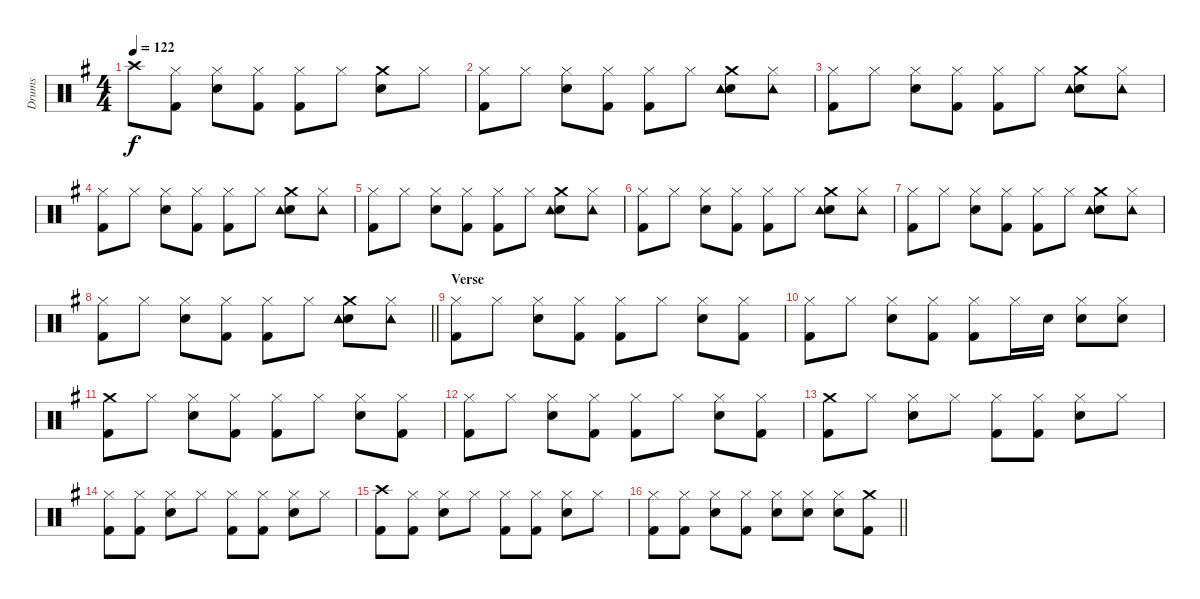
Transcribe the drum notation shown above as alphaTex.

\track ("Drums" "Drums") {instrument percussion}
\staff {score}
\articulation defaults
\ts (4 4)
\tempo 122
\clef neutral
\ks g "Crash high (hit)"{t}.8{dy f}
("Hi-Hat (closed)" "Kick (hit) 2").8 ("Hi-Hat (closed)" "Electric Snare (hit)").8 ("Hi-Hat (closed)" "Kick (hit) 2").8 ("Hi-Hat (closed)" "Kick (hit) 2").8 "Hi-Hat (closed)".8 ("Crash medium (hit)" "Electric Snare (hit)").8 "Hi-Hat (closed)".8 |
("Hi-Hat (closed)" "Kick (hit) 2").8 "Hi-Hat (closed)".8 ("Hi-Hat (closed)" "Electric Snare (hit)").8 ("Hi-Hat (closed)" "Kick (hit) 2").8 ("Hi-Hat (closed)" "Kick (hit) 2").8 "Hi-Hat (closed)".8 ("Crash medium (hit)" "Electric Snare (hit)" "Tambourine (hit)").8 ("Hi-Hat (closed)" "Tambourine (hit)").8 |
("Hi-Hat (closed)" "Kick (hit) 2").8 "Hi-Hat (closed)".8 ("Hi-Hat (closed)" "Electric Snare (hit)").8 ("Hi-Hat (closed)" "Kick (hit) 2").8 ("Hi-Hat (closed)" "Kick (hit) 2").8 "Hi-Hat (closed)".8 ("Crash medium (hit)" "Electric Snare (hit)" "Tambourine (hit)").8 ("Hi-Hat (closed)" "Tambourine (hit)").8 |
("Hi-Hat (closed)" "Kick (hit) 2").8 "Hi-Hat (closed)".8 ("Hi-Hat (closed)" "Electric Snare (hit)").8 ("Hi-Hat (closed)" "Kick (hit) 2").8 ("Hi-Hat (closed)" "Kick (hit) 2").8 "Hi-Hat (closed)".8 ("Crash medium (hit)" "Electric Snare (hit)" "Tambourine (hit)").8 ("Hi-Hat (closed)" "Tambourine (hit)").8 |
("Hi-Hat (closed)" "Kick (hit) 2").8 "Hi-Hat (closed)".8 ("Hi-Hat (closed)" "Electric Snare (hit)").8 ("Hi-Hat (closed)" "Kick (hit) 2").8 ("Hi-Hat (closed)" "Kick (hit) 2").8 "Hi-Hat (closed)".8 ("Crash medium (hit)" "Electric Snare (hit)" "Tambourine (hit)").8 ("Hi-Hat (closed)" "Tambourine (hit)").8 |
("Hi-Hat (closed)" "Kick (hit) 2").8 "Hi-Hat (closed)".8 ("Hi-Hat (closed)" "Electric Snare (hit)").8 ("Hi-Hat (closed)" "Kick (hit) 2").8 ("Hi-Hat (closed)" "Kick (hit) 2").8 "Hi-Hat (closed)".8 ("Crash medium (hit)" "Electric Snare (hit)" "Tambourine (hit)").8 ("Hi-Hat (closed)" "Tambourine (hit)").8 |
("Hi-Hat (closed)" "Kick (hit) 2").8 "Hi-Hat (closed)".8 ("Hi-Hat (closed)" "Electric Snare (hit)").8 ("Hi-Hat (closed)" "Kick (hit) 2").8 ("Hi-Hat (closed)" "Kick (hit) 2").8 "Hi-Hat (closed)".8 ("Crash medium (hit)" "Electric Snare (hit)" "Tambourine (hit)").8 ("Hi-Hat (closed)" "Tambourine (hit)").8 |
\barLineRight lightlight
("Hi-Hat (closed)" "Kick (hit) 2").8 "Hi-Hat (closed)".8 ("Hi-Hat (closed)" "Electric Snare (hit)").8 ("Hi-Hat (closed)" "Kick (hit) 2").8 ("Hi-Hat (closed)" "Kick (hit) 2").8 "Hi-Hat (closed)".8 ("Crash medium (hit)" "Electric Snare (hit)" "Tambourine (hit)").8 ("Hi-Hat (closed)" "Tambourine (hit)").8 |
\section ("" "Verse")
("Hi-Hat (closed)" "Kick (hit) 2").8 "Hi-Hat (closed)".8 ("Hi-Hat (closed)" "Electric Snare (hit)").8 ("Hi-Hat (closed)" "Kick (hit) 2").8 ("Hi-Hat (closed)" "Kick (hit) 2").8 "Hi-Hat (closed)".8 ("Hi-Hat (closed)" "Electric Snare (hit)").8 ("Hi-Hat (closed)" "Kick (hit) 2").8 |
("Hi-Hat (closed)" "Kick (hit) 2").8 "Hi-Hat (closed)".8 ("Hi-Hat (closed)" "Electric Snare (hit)").8 ("Hi-Hat (closed)" "Kick (hit) 2").8 ("Hi-Hat (closed)" "Kick (hit) 2").8 "Hi-Hat (closed)".16 "Electric Snare (hit)".16 ("Hi-Hat (closed)" "Electric Snare (hit)").8 ("Hi-Hat (closed)" "Electric Snare (hit)").8 |
("Crash medium (hit)" "Kick (hit) 2").8 "Hi-Hat (closed)".8 ("Hi-Hat (closed)" "Electric Snare (hit)").8 ("Hi-Hat (closed)" "Kick (hit) 2").8 ("Hi-Hat (closed)" "Kick (hit) 2").8 "Hi-Hat (closed)".8 ("Hi-Hat (closed)" "Electric Snare (hit)").8 ("Hi-Hat (closed)" "Kick (hit) 2").8 |
("Hi-Hat (closed)" "Kick (hit) 2").8 "Hi-Hat (closed)".8 ("Hi-Hat (closed)" "Electric Snare (hit)").8 ("Hi-Hat (closed)" "Kick (hit) 2").8 ("Hi-Hat (closed)" "Kick (hit) 2").8 "Hi-Hat (closed)".8 ("Hi-Hat (closed)" "Electric Snare (hit)").8 ("Hi-Hat (closed)" "Kick (hit) 2").8 |
("Crash medium (hit)" "Kick (hit) 2").8 "Hi-Hat (closed)".8 ("Hi-Hat (closed)" "Electric Snare (hit)").8 "Hi-Hat (closed)".8 ("Hi-Hat (closed)" "Kick (hit) 2").8 ("Hi-Hat (closed)" "Kick (hit) 2").8 ("Hi-Hat (closed)" "Electric Snare (hit)").8 "Hi-Hat (closed)".8 |
("Hi-Hat (closed)" "Kick (hit) 2").8 ("Hi-Hat (closed)" "Kick (hit) 2").8 ("Hi-Hat (closed)" "Electric Snare (hit)").8 "Hi-Hat (closed)".8 ("Hi-Hat (closed)" "Kick (hit) 2").8 ("Hi-Hat (closed)" "Kick (hit) 2").8 ("Hi-Hat (closed)" "Electric Snare (hit)").8 "Hi-Hat (closed)".8 |
("Crash high (hit)" "Kick (hit) 2").8 ("Hi-Hat (closed)" "Kick (hit) 2").8 ("Hi-Hat (closed)" "Electric Snare (hit)").8 "Hi-Hat (closed)".8 ("Hi-Hat (closed)" "Kick (hit) 2").8 ("Hi-Hat (closed)" "Kick (hit) 2").8 ("Hi-Hat (closed)" "Electric Snare (hit)").8 "Hi-Hat (closed)".8 |
\barLineRight lightlight
("Hi-Hat (closed)" "Kick (hit) 2").8 ("Hi-Hat (closed)" "Kick (hit) 2").8 ("Hi-Hat (closed)" "Electric Snare (hit)").8 ("Hi-Hat (closed)" "Kick (hit) 2").8 ("Hi-Hat (closed)" "Electric Snare (hit)").8 ("Hi-Hat (closed)" "Electric Snare (hit)").8 ("Hi-Hat (closed)" "Electric Snare (hit)").8 ("Crash medium (hit)" "Kick (hit) 2").8
